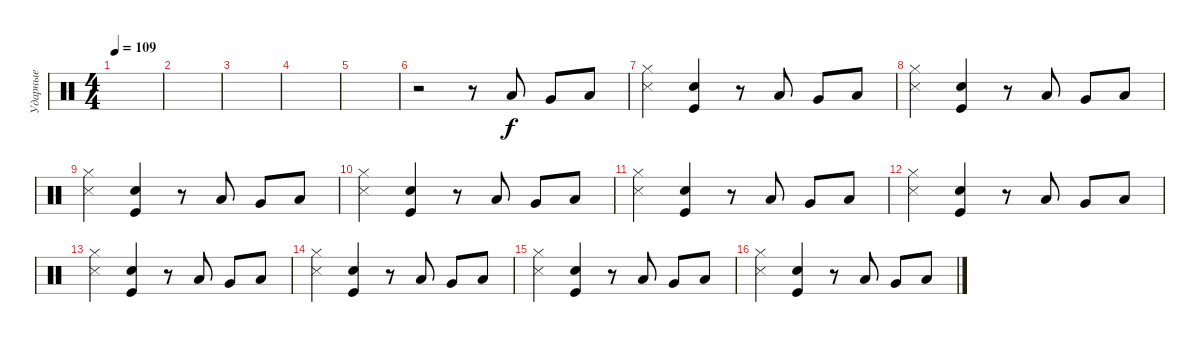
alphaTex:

\track ("Ударные" "Ударные") {instrument percussion}
\staff {score}
\articulation defaults
\ts (4 4)
\tempo 109
\clef neutral
\ks c
|
|
|
|
|
r.2 r.8 "Low Floor Tom (hit)".8 "Very Low Tom (hit)".8 "Low Floor Tom (hit)".8 |
("Snare (side stick) 3" "Hi-Hat (closed)").4 ("Snare (hit) 2" "Kick (hit)").4 r.8 "Low Floor Tom (hit)".8 "Very Low Tom (hit)".8 "Low Floor Tom (hit)".8 |
("Snare (side stick) 3" "Hi-Hat (closed)").4 ("Snare (hit) 2" "Kick (hit)").4 r.8 "Low Floor Tom (hit)".8 "Very Low Tom (hit)".8 "Low Floor Tom (hit)".8 |
("Snare (side stick) 3" "Hi-Hat (closed)").4 ("Snare (hit) 2" "Kick (hit)").4 r.8 "Low Floor Tom (hit)".8 "Very Low Tom (hit)".8 "Low Floor Tom (hit)".8 |
("Snare (side stick) 3" "Hi-Hat (closed)").4 ("Snare (hit) 2" "Kick (hit)").4 r.8 "Low Floor Tom (hit)".8 "Very Low Tom (hit)".8 "Low Floor Tom (hit)".8 |
("Snare (side stick) 3" "Hi-Hat (closed)").4 ("Snare (hit) 2" "Kick (hit)").4 r.8 "Low Floor Tom (hit)".8 "Very Low Tom (hit)".8 "Low Floor Tom (hit)".8 |
("Snare (side stick) 3" "Hi-Hat (closed)").4 ("Snare (hit) 2" "Kick (hit)").4 r.8 "Low Floor Tom (hit)".8 "Very Low Tom (hit)".8 "Low Floor Tom (hit)".8 |
("Snare (side stick) 3" "Hi-Hat (closed)").4 ("Snare (hit) 2" "Kick (hit)").4 r.8 "Low Floor Tom (hit)".8 "Very Low Tom (hit)".8 "Low Floor Tom (hit)".8 |
("Snare (side stick) 3" "Hi-Hat (closed)").4 ("Snare (hit) 2" "Kick (hit)").4 r.8 "Low Floor Tom (hit)".8 "Very Low Tom (hit)".8 "Low Floor Tom (hit)".8 |
("Snare (side stick) 3" "Hi-Hat (closed)").4 ("Snare (hit) 2" "Kick (hit)").4 r.8 "Low Floor Tom (hit)".8 "Very Low Tom (hit)".8 "Low Floor Tom (hit)".8 |
("Snare (side stick) 3" "Hi-Hat (closed)").4 ("Snare (hit) 2" "Kick (hit)").4 r.8 "Low Floor Tom (hit)".8 "Very Low Tom (hit)".8 "Low Floor Tom (hit)".8
